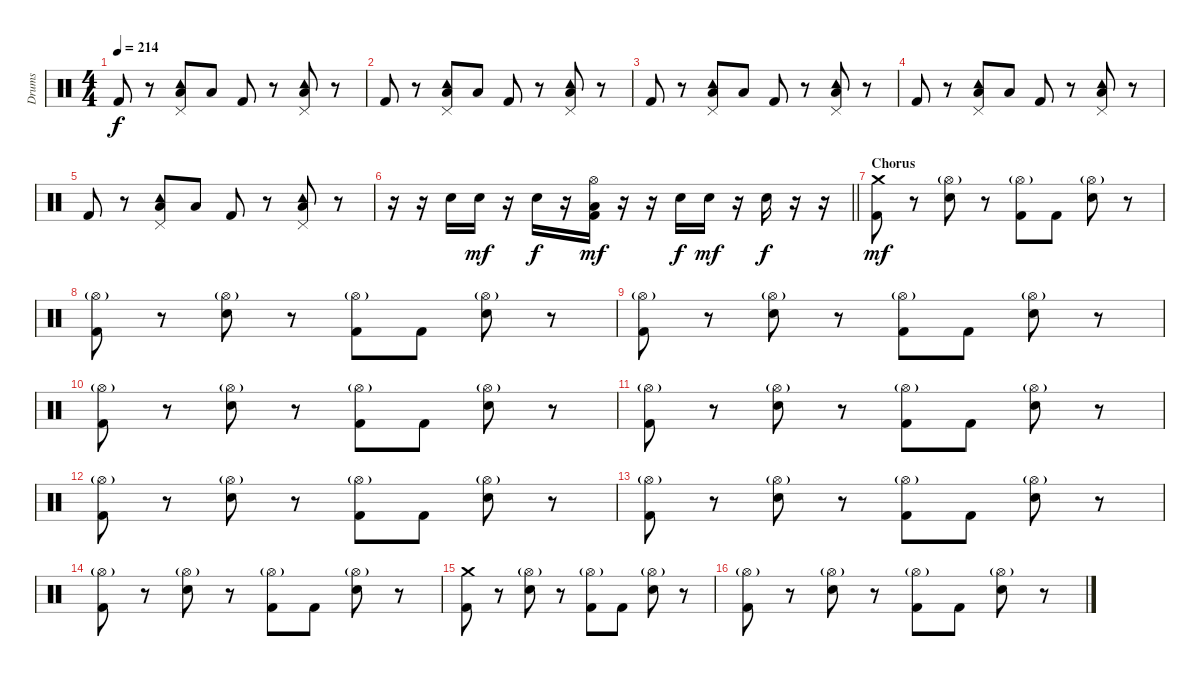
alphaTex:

\track ("Drums" "Drums") {instrument percussion}
\staff {score}
\articulation defaults
\ts (4 4)
\tempo 214
\clef neutral
\ks c "Kick (hit) 2".8{dy f}
r.8 ("Pedal Hi-Hat (hit)" "Tambourine (hit)" "Low Tom (hit)").8 "Low Tom (hit)".8 "Kick (hit) 2".8 r.8 ("Pedal Hi-Hat (hit)" "Tambourine (hit)" "Low Tom (hit)").8 r.8 |
"Kick (hit) 2".8 r.8 ("Pedal Hi-Hat (hit)" "Tambourine (hit)" "Low Tom (hit)").8 "Low Tom (hit)".8 "Kick (hit) 2".8 r.8 ("Pedal Hi-Hat (hit)" "Tambourine (hit)" "Low Tom (hit)").8 r.8 |
"Kick (hit) 2".8 r.8 ("Pedal Hi-Hat (hit)" "Tambourine (hit)" "Low Tom (hit)").8 "Low Tom (hit)".8 "Kick (hit) 2".8 r.8 ("Pedal Hi-Hat (hit)" "Tambourine (hit)" "Low Tom (hit)").8 r.8 |
"Kick (hit) 2".8 r.8 ("Pedal Hi-Hat (hit)" "Tambourine (hit)" "Low Tom (hit)").8 "Low Tom (hit)".8 "Kick (hit) 2".8 r.8 ("Pedal Hi-Hat (hit)" "Tambourine (hit)" "Low Tom (hit)").8 r.8 |
"Kick (hit) 2".8 r.8 ("Pedal Hi-Hat (hit)" "Tambourine (hit)" "Low Tom (hit)").8 "Low Tom (hit)".8 "Kick (hit) 2".8 r.8 ("Pedal Hi-Hat (hit)" "Tambourine (hit)" "Low Tom (hit)").8 r.8 |
\barLineRight lightlight
r.16 r.16 "Snare (hit) 2".16 "Snare (hit) 2".16{dy mf} r.16 "Snare (hit) 2".16{dy f} r.16 ("Hi-Hat (open)" "Low Tom (hit)" "Kick (hit) 2").16{dy mf} r.16 r.16 "Snare (hit) 2".16{dy f} "Snare (hit) 2".16{dy mf} r.16 "Snare (hit) 2".16{dy f} r.16 r.16 |
\section ("" "Chorus")
("Crash medium (hit)" "Kick (hit) 2").8{dy mf} r.8 ("Hi-Hat (open)"{g} "Snare (hit) 2").8 r.8 ("Hi-Hat (open)"{g} "Kick (hit) 2").8 "Kick (hit) 2".8 ("Hi-Hat (open)"{g} "Snare (hit) 2").8 r.8 |
("Hi-Hat (open)"{g} "Kick (hit) 2").8 r.8 ("Hi-Hat (open)"{g} "Snare (hit) 2").8 r.8 ("Hi-Hat (open)"{g} "Kick (hit) 2").8 "Kick (hit) 2".8 ("Hi-Hat (open)"{g} "Snare (hit) 2").8 r.8 |
("Hi-Hat (open)"{g} "Kick (hit) 2").8 r.8 ("Hi-Hat (open)"{g} "Snare (hit) 2").8 r.8 ("Hi-Hat (open)"{g} "Kick (hit) 2").8 "Kick (hit) 2".8 ("Hi-Hat (open)"{g} "Snare (hit) 2").8 r.8 |
("Hi-Hat (open)"{g} "Kick (hit) 2").8 r.8 ("Hi-Hat (open)"{g} "Snare (hit) 2").8 r.8 ("Hi-Hat (open)"{g} "Kick (hit) 2").8 "Kick (hit) 2".8 ("Hi-Hat (open)"{g} "Snare (hit) 2").8 r.8 |
("Hi-Hat (open)"{g} "Kick (hit) 2").8 r.8 ("Hi-Hat (open)"{g} "Snare (hit) 2").8 r.8 ("Hi-Hat (open)"{g} "Kick (hit) 2").8 "Kick (hit) 2".8 ("Hi-Hat (open)"{g} "Snare (hit) 2").8 r.8 |
("Hi-Hat (open)"{g} "Kick (hit) 2").8 r.8 ("Hi-Hat (open)"{g} "Snare (hit) 2").8 r.8 ("Hi-Hat (open)"{g} "Kick (hit) 2").8 "Kick (hit) 2".8 ("Hi-Hat (open)"{g} "Snare (hit) 2").8 r.8 |
("Hi-Hat (open)"{g} "Kick (hit) 2").8 r.8 ("Hi-Hat (open)"{g} "Snare (hit) 2").8 r.8 ("Hi-Hat (open)"{g} "Kick (hit) 2").8 "Kick (hit) 2".8 ("Hi-Hat (open)"{g} "Snare (hit) 2").8 r.8 |
("Hi-Hat (open)"{g} "Kick (hit) 2").8 r.8 ("Hi-Hat (open)"{g} "Snare (hit) 2").8 r.8 ("Hi-Hat (open)"{g} "Kick (hit) 2").8 "Kick (hit) 2".8 ("Hi-Hat (open)"{g} "Snare (hit) 2").8 r.8 |
("Crash medium (hit)" "Kick (hit) 2").8 r.8 ("Hi-Hat (open)"{g} "Snare (hit) 2").8 r.8 ("Hi-Hat (open)"{g} "Kick (hit) 2").8 "Kick (hit) 2".8 ("Hi-Hat (open)"{g} "Snare (hit) 2").8 r.8 |
("Hi-Hat (open)"{g} "Kick (hit) 2").8 r.8 ("Hi-Hat (open)"{g} "Snare (hit) 2").8 r.8 ("Hi-Hat (open)"{g} "Kick (hit) 2").8 "Kick (hit) 2".8 ("Hi-Hat (open)"{g} "Snare (hit) 2").8 r.8
